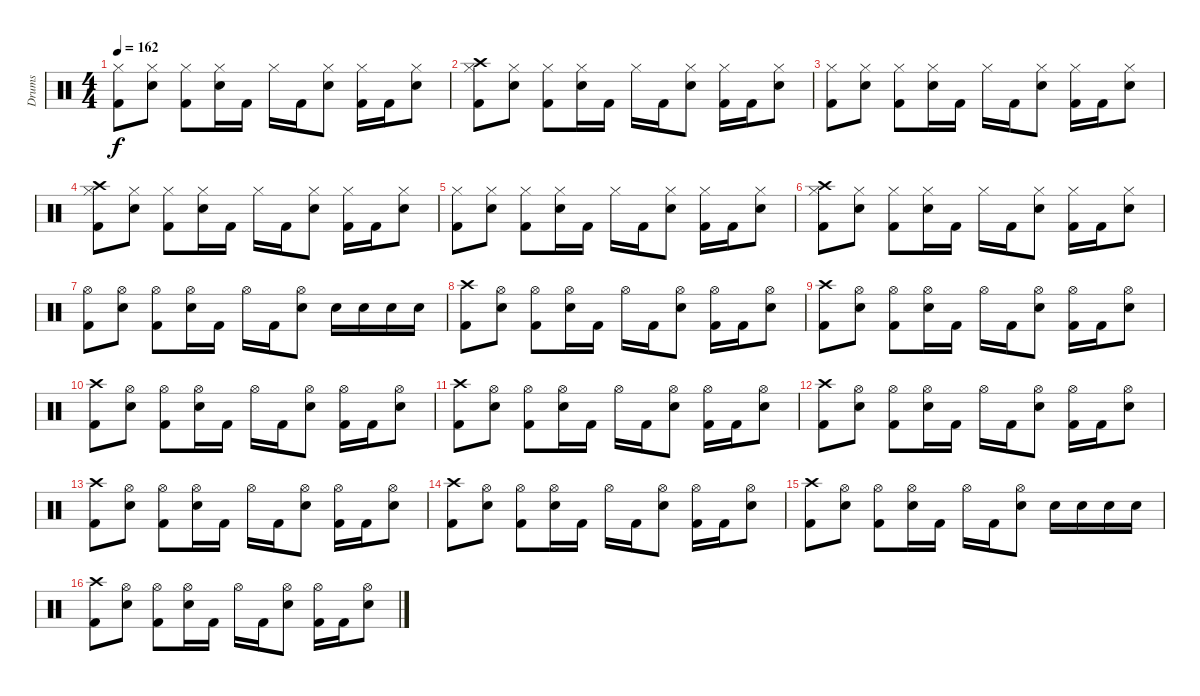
\track ("Drums" "Drums") {instrument percussion}
\staff {score}
\articulation defaults
\ts (4 4)
\tempo 162
\clef neutral
\ks c
("Kick (hit) 2" "Hi-Hat (closed)").8{dy f} ("Snare (hit) 2" "Hi-Hat (closed)").8 ("Kick (hit) 2" "Hi-Hat (closed)").8 ("Snare (hit) 2" "Hi-Hat (closed)").16 "Kick (hit) 2".16 "Hi-Hat (closed)".16 "Kick (hit) 2".16 ("Snare (hit) 2" "Hi-Hat (closed)").8 ("Kick (hit) 2" "Hi-Hat (closed)").16 "Kick (hit) 2".16 ("Snare (hit) 2" "Hi-Hat (closed)").8 |
("Kick (hit) 2" "Hi-Hat (closed)" "Crash high (hit)").8 ("Snare (hit) 2" "Hi-Hat (closed)").8 ("Kick (hit) 2" "Hi-Hat (closed)").8 ("Snare (hit) 2" "Hi-Hat (closed)").16 "Kick (hit) 2".16 "Hi-Hat (closed)".16 "Kick (hit) 2".16 ("Snare (hit) 2" "Hi-Hat (closed)").8 ("Kick (hit) 2" "Hi-Hat (closed)").16 "Kick (hit) 2".16 ("Snare (hit) 2" "Hi-Hat (closed)").8 |
("Kick (hit) 2" "Hi-Hat (closed)").8 ("Snare (hit) 2" "Hi-Hat (closed)").8 ("Kick (hit) 2" "Hi-Hat (closed)").8 ("Snare (hit) 2" "Hi-Hat (closed)").16 "Kick (hit) 2".16 "Hi-Hat (closed)".16 "Kick (hit) 2".16 ("Snare (hit) 2" "Hi-Hat (closed)").8 ("Kick (hit) 2" "Hi-Hat (closed)").16 "Kick (hit) 2".16 ("Snare (hit) 2" "Hi-Hat (closed)").8 |
("Kick (hit) 2" "Hi-Hat (closed)" "Crash high (hit)").8 ("Snare (hit) 2" "Hi-Hat (closed)").8 ("Kick (hit) 2" "Hi-Hat (closed)").8 ("Snare (hit) 2" "Hi-Hat (closed)").16 "Kick (hit) 2".16 "Hi-Hat (closed)".16 "Kick (hit) 2".16 ("Snare (hit) 2" "Hi-Hat (closed)").8 ("Kick (hit) 2" "Hi-Hat (closed)").16 "Kick (hit) 2".16 ("Snare (hit) 2" "Hi-Hat (closed)").8 |
("Kick (hit) 2" "Hi-Hat (closed)").8 ("Snare (hit) 2" "Hi-Hat (closed)").8 ("Kick (hit) 2" "Hi-Hat (closed)").8 ("Snare (hit) 2" "Hi-Hat (closed)").16 "Kick (hit) 2".16 "Hi-Hat (closed)".16 "Kick (hit) 2".16 ("Snare (hit) 2" "Hi-Hat (closed)").8 ("Kick (hit) 2" "Hi-Hat (closed)").16 "Kick (hit) 2".16 ("Snare (hit) 2" "Hi-Hat (closed)").8 |
("Kick (hit) 2" "Hi-Hat (closed)" "Crash high (hit)").8 ("Snare (hit) 2" "Hi-Hat (closed)").8 ("Kick (hit) 2" "Hi-Hat (closed)").8 ("Snare (hit) 2" "Hi-Hat (closed)").16 "Kick (hit) 2".16 "Hi-Hat (closed)".16 "Kick (hit) 2".16 ("Snare (hit) 2" "Hi-Hat (closed)").8 ("Kick (hit) 2" "Hi-Hat (closed)").16 "Kick (hit) 2".16 ("Snare (hit) 2" "Hi-Hat (closed)").8 |
("Kick (hit) 2" "Hi-Hat (open)").8 ("Snare (hit) 2" "Hi-Hat (open)").8 ("Kick (hit) 2" "Hi-Hat (open)").8 ("Snare (hit) 2" "Hi-Hat (open)").16 "Kick (hit) 2".16 "Hi-Hat (open)".16 "Kick (hit) 2".16 ("Snare (hit) 2" "Hi-Hat (open)").8 "Snare (hit) 2".16 "Snare (hit) 2".16 "Snare (hit) 2".16 "Snare (hit) 2".16 |
("Kick (hit) 2" "Crash high (hit)").8 ("Snare (hit) 2" "Hi-Hat (open)").8 ("Kick (hit) 2" "Hi-Hat (open)").8 ("Snare (hit) 2" "Hi-Hat (open)").16 "Kick (hit) 2".16 "Hi-Hat (open)".16 "Kick (hit) 2".16 ("Snare (hit) 2" "Hi-Hat (open)").8 ("Kick (hit) 2" "Hi-Hat (open)").16 "Kick (hit) 2".16 ("Snare (hit) 2" "Hi-Hat (open)").8 |
("Kick (hit) 2" "Crash high (hit)").8 ("Snare (hit) 2" "Hi-Hat (open)").8 ("Kick (hit) 2" "Hi-Hat (open)").8 ("Snare (hit) 2" "Hi-Hat (open)").16 "Kick (hit) 2".16 "Hi-Hat (open)".16 "Kick (hit) 2".16 ("Snare (hit) 2" "Hi-Hat (open)").8 ("Kick (hit) 2" "Hi-Hat (open)").16 "Kick (hit) 2".16 ("Snare (hit) 2" "Hi-Hat (open)").8 |
("Kick (hit) 2" "Crash high (hit)").8 ("Snare (hit) 2" "Hi-Hat (open)").8 ("Kick (hit) 2" "Hi-Hat (open)").8 ("Snare (hit) 2" "Hi-Hat (open)").16 "Kick (hit) 2".16 "Hi-Hat (open)".16 "Kick (hit) 2".16 ("Snare (hit) 2" "Hi-Hat (open)").8 ("Kick (hit) 2" "Hi-Hat (open)").16 "Kick (hit) 2".16 ("Snare (hit) 2" "Hi-Hat (open)").8 |
("Kick (hit) 2" "Crash high (hit)").8 ("Snare (hit) 2" "Hi-Hat (open)").8 ("Kick (hit) 2" "Hi-Hat (open)").8 ("Snare (hit) 2" "Hi-Hat (open)").16 "Kick (hit) 2".16 "Hi-Hat (open)".16 "Kick (hit) 2".16 ("Snare (hit) 2" "Hi-Hat (open)").8 ("Kick (hit) 2" "Hi-Hat (open)").16 "Kick (hit) 2".16 ("Snare (hit) 2" "Hi-Hat (open)").8 |
("Kick (hit) 2" "Crash high (hit)").8 ("Snare (hit) 2" "Hi-Hat (open)").8 ("Kick (hit) 2" "Hi-Hat (open)").8 ("Snare (hit) 2" "Hi-Hat (open)").16 "Kick (hit) 2".16 "Hi-Hat (open)".16 "Kick (hit) 2".16 ("Snare (hit) 2" "Hi-Hat (open)").8 ("Kick (hit) 2" "Hi-Hat (open)").16 "Kick (hit) 2".16 ("Snare (hit) 2" "Hi-Hat (open)").8 |
("Kick (hit) 2" "Crash high (hit)").8 ("Snare (hit) 2" "Hi-Hat (open)").8 ("Kick (hit) 2" "Hi-Hat (open)").8 ("Snare (hit) 2" "Hi-Hat (open)").16 "Kick (hit) 2".16 "Hi-Hat (open)".16 "Kick (hit) 2".16 ("Snare (hit) 2" "Hi-Hat (open)").8 ("Kick (hit) 2" "Hi-Hat (open)").16 "Kick (hit) 2".16 ("Snare (hit) 2" "Hi-Hat (open)").8 |
("Kick (hit) 2" "Crash high (hit)").8 ("Snare (hit) 2" "Hi-Hat (open)").8 ("Kick (hit) 2" "Hi-Hat (open)").8 ("Snare (hit) 2" "Hi-Hat (open)").16 "Kick (hit) 2".16 "Hi-Hat (open)".16 "Kick (hit) 2".16 ("Snare (hit) 2" "Hi-Hat (open)").8 ("Kick (hit) 2" "Hi-Hat (open)").16 "Kick (hit) 2".16 ("Snare (hit) 2" "Hi-Hat (open)").8 |
("Kick (hit) 2" "Crash high (hit)").8 ("Snare (hit) 2" "Hi-Hat (open)").8 ("Kick (hit) 2" "Hi-Hat (open)").8 ("Snare (hit) 2" "Hi-Hat (open)").16 "Kick (hit) 2".16 "Hi-Hat (open)".16 "Kick (hit) 2".16 ("Snare (hit) 2" "Hi-Hat (open)").8 "Snare (hit) 2".16 "Snare (hit) 2".16 "Snare (hit) 2".16 "Snare (hit) 2".16 |
("Kick (hit) 2" "Crash high (hit)").8 ("Snare (hit) 2" "Hi-Hat (open)").8 ("Kick (hit) 2" "Hi-Hat (open)").8 ("Snare (hit) 2" "Hi-Hat (open)").16 "Kick (hit) 2".16 "Hi-Hat (open)".16 "Kick (hit) 2".16 ("Snare (hit) 2" "Hi-Hat (open)").8 ("Kick (hit) 2" "Hi-Hat (open)").16 "Kick (hit) 2".16 ("Snare (hit) 2" "Hi-Hat (open)").8
